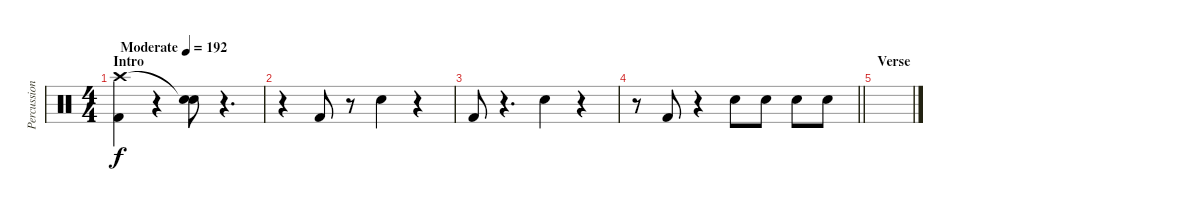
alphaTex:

\track ("Percussion" "Percussion") {instrument percussion}
\staff {score}
\articulation defaults
\ts (4 4)
\section ("" "Intro")
\tempo (192 "Moderate")
\clef neutral
\ks c
("Crash high (hit)" "Kick (hit) 2").4{dy f} r.4 ("Snare (hit)"{t} "Snare (hit) 2").8 r.4{d} |
r.4 "Kick (hit) 2".8 r.8 "Snare (hit) 2".4 r.4 |
"Kick (hit) 2".8 r.4{d} "Snare (hit) 2".4 r.4 |
\barLineRight lightlight
r.8 "Kick (hit) 2".8 r.4 "Snare (hit) 2".8 "Snare (hit) 2".8 "Snare (hit) 2".8 "Snare (hit) 2".8 |
\section ("" "Verse")
